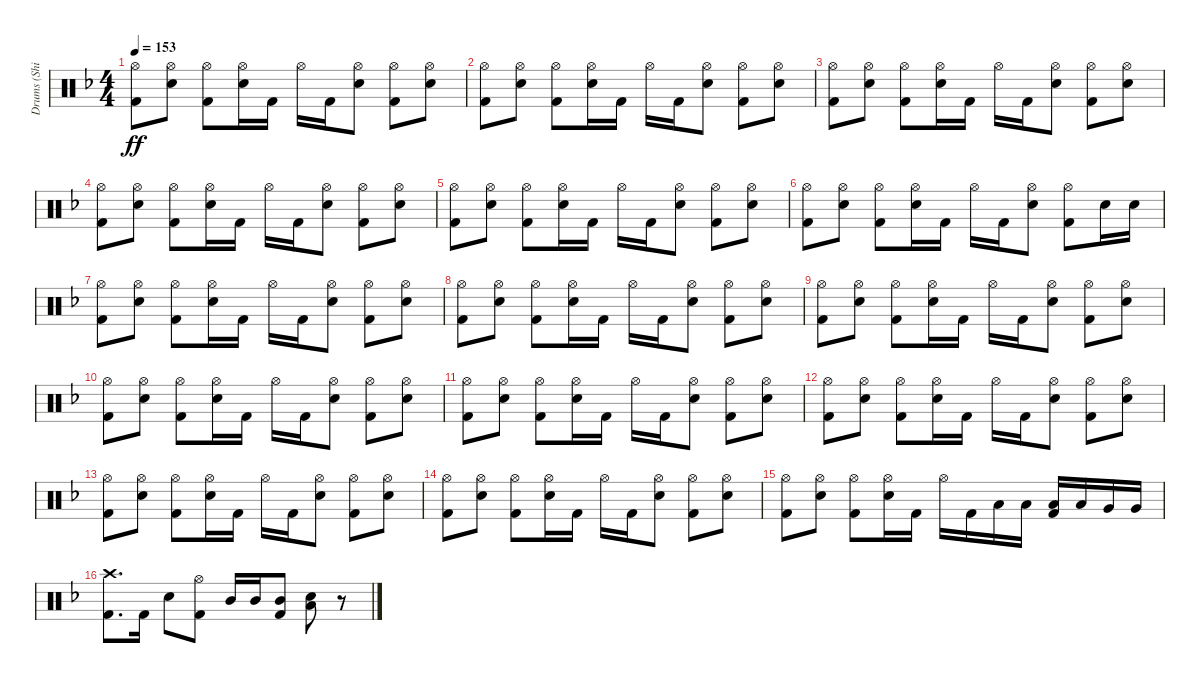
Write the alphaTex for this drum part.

\track ("Drums (Shinya ! Shinya !)" "Drums (Shi") {instrument percussion}
\staff {score}
\articulation defaults
\ts (4 4)
\tempo 153
\clef neutral
\ks f
("Kick (hit) 2" "Hi-Hat (open)").8{dy ff} ("Electric Snare (hit)" "Hi-Hat (open)").8 ("Kick (hit) 2" "Hi-Hat (open)").8 ("Electric Snare (hit)" "Hi-Hat (open)").16 "Kick (hit) 2".16 "Hi-Hat (open)".16 "Kick (hit) 2".16 ("Electric Snare (hit)" "Hi-Hat (open)").8 ("Kick (hit) 2" "Hi-Hat (open)").8 ("Electric Snare (hit)" "Hi-Hat (open)").8 |
("Kick (hit) 2" "Hi-Hat (open)").8 ("Electric Snare (hit)" "Hi-Hat (open)").8 ("Kick (hit) 2" "Hi-Hat (open)").8 ("Electric Snare (hit)" "Hi-Hat (open)").16 "Kick (hit) 2".16 "Hi-Hat (open)".16 "Kick (hit) 2".16 ("Electric Snare (hit)" "Hi-Hat (open)").8 ("Kick (hit) 2" "Hi-Hat (open)").8 ("Electric Snare (hit)" "Hi-Hat (open)").8 |
("Kick (hit) 2" "Hi-Hat (open)").8 ("Electric Snare (hit)" "Hi-Hat (open)").8 ("Kick (hit) 2" "Hi-Hat (open)").8 ("Electric Snare (hit)" "Hi-Hat (open)").16 "Kick (hit) 2".16 "Hi-Hat (open)".16 "Kick (hit) 2".16 ("Electric Snare (hit)" "Hi-Hat (open)").8 ("Kick (hit) 2" "Hi-Hat (open)").8 ("Electric Snare (hit)" "Hi-Hat (open)").8 |
("Kick (hit) 2" "Hi-Hat (open)").8 ("Electric Snare (hit)" "Hi-Hat (open)").8 ("Kick (hit) 2" "Hi-Hat (open)").8 ("Electric Snare (hit)" "Hi-Hat (open)").16 "Kick (hit) 2".16 "Hi-Hat (open)".16 "Kick (hit) 2".16 ("Electric Snare (hit)" "Hi-Hat (open)").8 ("Kick (hit) 2" "Hi-Hat (open)").8 ("Electric Snare (hit)" "Hi-Hat (open)").8 |
("Kick (hit) 2" "Hi-Hat (open)").8 ("Electric Snare (hit)" "Hi-Hat (open)").8 ("Kick (hit) 2" "Hi-Hat (open)").8 ("Electric Snare (hit)" "Hi-Hat (open)").16 "Kick (hit) 2".16 "Hi-Hat (open)".16 "Kick (hit) 2".16 ("Electric Snare (hit)" "Hi-Hat (open)").8 ("Kick (hit) 2" "Hi-Hat (open)").8 ("Electric Snare (hit)" "Hi-Hat (open)").8 |
("Kick (hit) 2" "Hi-Hat (open)").8 ("Electric Snare (hit)" "Hi-Hat (open)").8 ("Kick (hit) 2" "Hi-Hat (open)").8 ("Electric Snare (hit)" "Hi-Hat (open)").16 "Kick (hit) 2".16 "Hi-Hat (open)".16 "Kick (hit) 2".16 ("Electric Snare (hit)" "Hi-Hat (open)").8 ("Kick (hit) 2" "Hi-Hat (open)").8 "Electric Snare (hit)".16 "Electric Snare (hit)".16 |
("Kick (hit) 2" "Hi-Hat (open)").8 ("Electric Snare (hit)" "Hi-Hat (open)").8 ("Kick (hit) 2" "Hi-Hat (open)").8 ("Electric Snare (hit)" "Hi-Hat (open)").16 "Kick (hit) 2".16 "Hi-Hat (open)".16 "Kick (hit) 2".16 ("Electric Snare (hit)" "Hi-Hat (open)").8 ("Kick (hit) 2" "Hi-Hat (open)").8 ("Electric Snare (hit)" "Hi-Hat (open)").8 |
("Kick (hit) 2" "Hi-Hat (open)").8 ("Electric Snare (hit)" "Hi-Hat (open)").8 ("Kick (hit) 2" "Hi-Hat (open)").8 ("Electric Snare (hit)" "Hi-Hat (open)").16 "Kick (hit) 2".16 "Hi-Hat (open)".16 "Kick (hit) 2".16 ("Electric Snare (hit)" "Hi-Hat (open)").8 ("Kick (hit) 2" "Hi-Hat (open)").8 ("Electric Snare (hit)" "Hi-Hat (open)").8 |
("Kick (hit) 2" "Hi-Hat (open)").8 ("Electric Snare (hit)" "Hi-Hat (open)").8 ("Kick (hit) 2" "Hi-Hat (open)").8 ("Electric Snare (hit)" "Hi-Hat (open)").16 "Kick (hit) 2".16 "Hi-Hat (open)".16 "Kick (hit) 2".16 ("Electric Snare (hit)" "Hi-Hat (open)").8 ("Kick (hit) 2" "Hi-Hat (open)").8 ("Electric Snare (hit)" "Hi-Hat (open)").8 |
("Kick (hit) 2" "Hi-Hat (open)").8 ("Electric Snare (hit)" "Hi-Hat (open)").8 ("Kick (hit) 2" "Hi-Hat (open)").8 ("Electric Snare (hit)" "Hi-Hat (open)").16 "Kick (hit) 2".16 "Hi-Hat (open)".16 "Kick (hit) 2".16 ("Electric Snare (hit)" "Hi-Hat (open)").8 ("Kick (hit) 2" "Hi-Hat (open)").8 ("Electric Snare (hit)" "Hi-Hat (open)").8 |
("Kick (hit) 2" "Hi-Hat (open)").8 ("Electric Snare (hit)" "Hi-Hat (open)").8 ("Kick (hit) 2" "Hi-Hat (open)").8 ("Electric Snare (hit)" "Hi-Hat (open)").16 "Kick (hit) 2".16 "Hi-Hat (open)".16 "Kick (hit) 2".16 ("Electric Snare (hit)" "Hi-Hat (open)").8 ("Kick (hit) 2" "Hi-Hat (open)").8 ("Electric Snare (hit)" "Hi-Hat (open)").8 |
("Kick (hit) 2" "Hi-Hat (open)").8 ("Electric Snare (hit)" "Hi-Hat (open)").8 ("Kick (hit) 2" "Hi-Hat (open)").8 ("Electric Snare (hit)" "Hi-Hat (open)").16 "Kick (hit) 2".16 "Hi-Hat (open)".16 "Kick (hit) 2".16 ("Electric Snare (hit)" "Hi-Hat (open)").8 ("Kick (hit) 2" "Hi-Hat (open)").8 ("Electric Snare (hit)" "Hi-Hat (open)").8 |
("Kick (hit) 2" "Hi-Hat (open)").8 ("Electric Snare (hit)" "Hi-Hat (open)").8 ("Kick (hit) 2" "Hi-Hat (open)").8 ("Electric Snare (hit)" "Hi-Hat (open)").16 "Kick (hit) 2".16 "Hi-Hat (open)".16 "Kick (hit) 2".16 ("Electric Snare (hit)" "Hi-Hat (open)").8 ("Kick (hit) 2" "Hi-Hat (open)").8 ("Electric Snare (hit)" "Hi-Hat (open)").8 |
("Kick (hit) 2" "Hi-Hat (open)").8 ("Electric Snare (hit)" "Hi-Hat (open)").8 ("Kick (hit) 2" "Hi-Hat (open)").8 ("Electric Snare (hit)" "Hi-Hat (open)").16 "Kick (hit) 2".16 "Hi-Hat (open)".16 "Kick (hit) 2".16 ("Electric Snare (hit)" "Hi-Hat (open)").8 ("Kick (hit) 2" "Hi-Hat (open)").8 ("Electric Snare (hit)" "Hi-Hat (open)").8 |
("Kick (hit) 2" "Hi-Hat (open)").8 ("Electric Snare (hit)" "Hi-Hat (open)").8 ("Kick (hit) 2" "Hi-Hat (open)").8 ("Electric Snare (hit)" "Hi-Hat (open)").16 "Kick (hit) 2".16 "Hi-Hat (open)".16 "Kick (hit) 2".16 "Low Tom (hit)".16 "Low Tom (hit)".16 ("Kick (hit) 2" "Low Tom (hit)").16 "Low Tom (hit)".16 "Very Low Tom (hit)".16 "Very Low Tom (hit)".16 |
("Kick (hit) 2" "Crash high (hit)").8{d} "Kick (hit) 2".16 "Electric Snare (hit)".8 ("Hi-Hat (open)" "Kick (hit) 2").8 "Mid Tom (hit)".16 "Mid Tom (hit)".16 ("Kick (hit) 2" "Mid Tom (hit)").8 ("Electric Snare (hit)" "Low Tom (hit)").8 r.8
